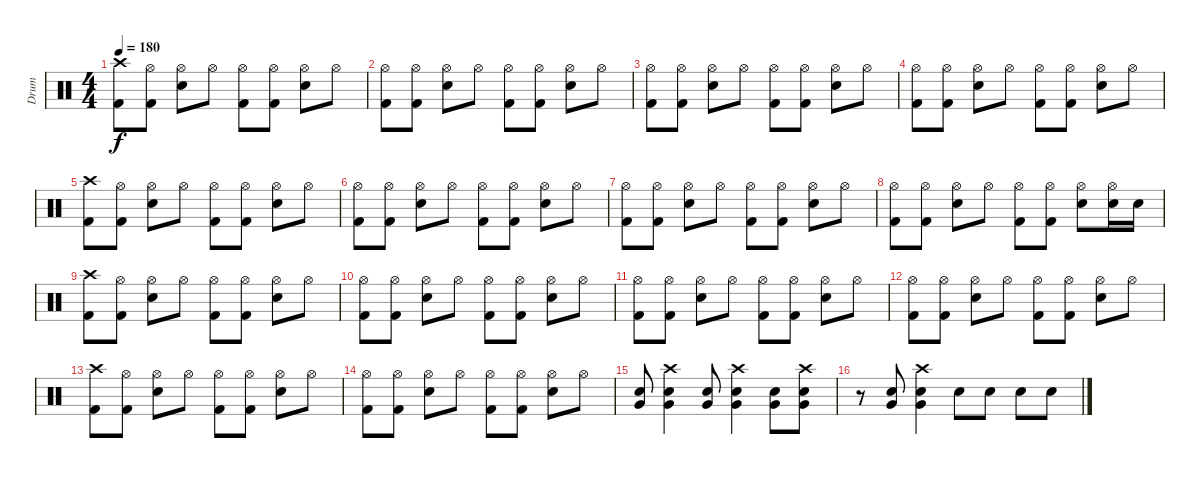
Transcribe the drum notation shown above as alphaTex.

\track ("Drum" "Drum") {instrument percussion}
\staff {score}
\articulation defaults
\ts (4 4)
\tempo 180
\clef neutral
\ks c
("Crash high (hit)" "Kick (hit) 2").8{dy f} ("Hi-Hat (open)" "Kick (hit) 2").8 ("Hi-Hat (open)" "Electric Snare (hit)").8 "Hi-Hat (open)".8 ("Hi-Hat (open)" "Kick (hit) 2").8 ("Hi-Hat (open)" "Kick (hit) 2").8 ("Hi-Hat (open)" "Electric Snare (hit)").8 "Hi-Hat (open)".8 |
("Hi-Hat (open)" "Kick (hit) 2").8 ("Hi-Hat (open)" "Kick (hit) 2").8 ("Hi-Hat (open)" "Electric Snare (hit)").8 "Hi-Hat (open)".8 ("Hi-Hat (open)" "Kick (hit) 2").8 ("Hi-Hat (open)" "Kick (hit) 2").8 ("Hi-Hat (open)" "Electric Snare (hit)").8 "Hi-Hat (open)".8 |
("Hi-Hat (open)" "Kick (hit) 2").8 ("Hi-Hat (open)" "Kick (hit) 2").8 ("Hi-Hat (open)" "Electric Snare (hit)").8 "Hi-Hat (open)".8 ("Hi-Hat (open)" "Kick (hit) 2").8 ("Hi-Hat (open)" "Kick (hit) 2").8 ("Hi-Hat (open)" "Electric Snare (hit)").8 "Hi-Hat (open)".8 |
("Hi-Hat (open)" "Kick (hit) 2").8 ("Hi-Hat (open)" "Kick (hit) 2").8 ("Hi-Hat (open)" "Electric Snare (hit)").8 "Hi-Hat (open)".8 ("Hi-Hat (open)" "Kick (hit) 2").8 ("Hi-Hat (open)" "Kick (hit) 2").8 ("Hi-Hat (open)" "Electric Snare (hit)").8 "Hi-Hat (open)".8 |
("Crash high (hit)" "Kick (hit) 2").8 ("Hi-Hat (open)" "Kick (hit) 2").8 ("Hi-Hat (open)" "Electric Snare (hit)").8 "Hi-Hat (open)".8 ("Hi-Hat (open)" "Kick (hit) 2").8 ("Hi-Hat (open)" "Kick (hit) 2").8 ("Hi-Hat (open)" "Electric Snare (hit)").8 "Hi-Hat (open)".8 |
("Hi-Hat (open)" "Kick (hit) 2").8 ("Hi-Hat (open)" "Kick (hit) 2").8 ("Hi-Hat (open)" "Electric Snare (hit)").8 "Hi-Hat (open)".8 ("Hi-Hat (open)" "Kick (hit) 2").8 ("Hi-Hat (open)" "Kick (hit) 2").8 ("Hi-Hat (open)" "Electric Snare (hit)").8 "Hi-Hat (open)".8 |
("Hi-Hat (open)" "Kick (hit) 2").8 ("Hi-Hat (open)" "Kick (hit) 2").8 ("Hi-Hat (open)" "Electric Snare (hit)").8 "Hi-Hat (open)".8 ("Hi-Hat (open)" "Kick (hit) 2").8 ("Hi-Hat (open)" "Kick (hit) 2").8 ("Hi-Hat (open)" "Electric Snare (hit)").8 "Hi-Hat (open)".8 |
("Hi-Hat (open)" "Kick (hit) 2").8 ("Hi-Hat (open)" "Kick (hit) 2").8 ("Hi-Hat (open)" "Electric Snare (hit)").8 "Hi-Hat (open)".8 ("Hi-Hat (open)" "Kick (hit) 2").8 ("Hi-Hat (open)" "Kick (hit) 2").8 ("Hi-Hat (open)" "Electric Snare (hit)").8 ("Hi-Hat (open)" "Electric Snare (hit)").16 "Electric Snare (hit)".16 |
("Crash high (hit)" "Kick (hit) 2").8 ("Hi-Hat (open)" "Kick (hit) 2").8 ("Hi-Hat (open)" "Electric Snare (hit)").8 "Hi-Hat (open)".8 ("Hi-Hat (open)" "Kick (hit) 2").8 ("Hi-Hat (open)" "Kick (hit) 2").8 ("Hi-Hat (open)" "Electric Snare (hit)").8 "Hi-Hat (open)".8 |
("Hi-Hat (open)" "Kick (hit) 2").8 ("Hi-Hat (open)" "Kick (hit) 2").8 ("Hi-Hat (open)" "Electric Snare (hit)").8 "Hi-Hat (open)".8 ("Hi-Hat (open)" "Kick (hit) 2").8 ("Hi-Hat (open)" "Kick (hit) 2").8 ("Hi-Hat (open)" "Electric Snare (hit)").8 "Hi-Hat (open)".8 |
("Hi-Hat (open)" "Kick (hit) 2").8 ("Hi-Hat (open)" "Kick (hit) 2").8 ("Hi-Hat (open)" "Electric Snare (hit)").8 "Hi-Hat (open)".8 ("Hi-Hat (open)" "Kick (hit) 2").8 ("Hi-Hat (open)" "Kick (hit) 2").8 ("Hi-Hat (open)" "Electric Snare (hit)").8 "Hi-Hat (open)".8 |
("Hi-Hat (open)" "Kick (hit) 2").8 ("Hi-Hat (open)" "Kick (hit) 2").8 ("Hi-Hat (open)" "Electric Snare (hit)").8 "Hi-Hat (open)".8 ("Hi-Hat (open)" "Kick (hit) 2").8 ("Hi-Hat (open)" "Kick (hit) 2").8 ("Hi-Hat (open)" "Electric Snare (hit)").8 "Hi-Hat (open)".8 |
("Crash high (hit)" "Kick (hit) 2").8 ("Hi-Hat (open)" "Kick (hit) 2").8 ("Hi-Hat (open)" "Electric Snare (hit)").8 "Hi-Hat (open)".8 ("Hi-Hat (open)" "Kick (hit) 2").8 ("Hi-Hat (open)" "Kick (hit) 2").8 ("Hi-Hat (open)" "Electric Snare (hit)").8 "Hi-Hat (open)".8 |
("Hi-Hat (open)" "Kick (hit) 2").8 ("Hi-Hat (open)" "Kick (hit) 2").8 ("Hi-Hat (open)" "Electric Snare (hit)").8 "Hi-Hat (open)".8 ("Hi-Hat (open)" "Kick (hit) 2").8 ("Hi-Hat (open)" "Kick (hit) 2").8 ("Hi-Hat (open)" "Electric Snare (hit)").8 "Hi-Hat (open)".8 |
("Electric Snare (hit)" "Very Low Tom (hit)").8 ("Crash high (hit)" "Electric Snare (hit)" "Very Low Tom (hit)").4 ("Electric Snare (hit)" "Very Low Tom (hit)").8 ("Crash high (hit)" "Electric Snare (hit)" "Very Low Tom (hit)").4 ("Electric Snare (hit)" "Very Low Tom (hit)").8 ("Crash high (hit)" "Electric Snare (hit)" "Very Low Tom (hit)").8 |
r.8 ("Electric Snare (hit)" "Very Low Tom (hit)").8 ("Crash high (hit)" "Electric Snare (hit)" "Very Low Tom (hit)").4 "Electric Snare (hit)".8 "Electric Snare (hit)".8 "Electric Snare (hit)".8 "Electric Snare (hit)".8
